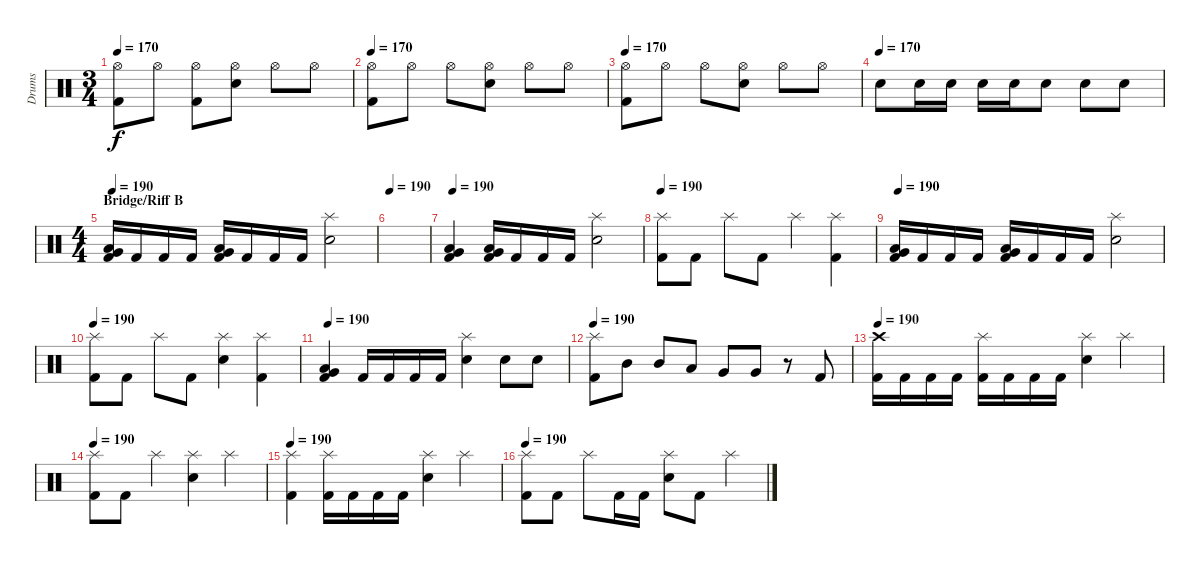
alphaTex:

\track ("Drums" "Drums") {instrument percussion}
\staff {score}
\articulation defaults
\ts (3 4)
\tempo 170
\clef neutral
\ks c
("Hi-Hat (open)" "Kick (hit) 2").8{dy f} "Hi-Hat (open)".8 ("Hi-Hat (open)" "Kick (hit) 2").8 ("Hi-Hat (open)" "Electric Snare (hit)").8 "Hi-Hat (open)".8 "Hi-Hat (open)".8 |
\tempo 170
("Hi-Hat (open)" "Kick (hit) 2").8 "Hi-Hat (open)".8 "Hi-Hat (open)".8 ("Hi-Hat (open)" "Electric Snare (hit)").8 "Hi-Hat (open)".8 "Hi-Hat (open)".8 |
\tempo 170
("Hi-Hat (open)" "Kick (hit) 2").8 "Hi-Hat (open)".8 "Hi-Hat (open)".8 ("Hi-Hat (open)" "Electric Snare (hit)").8 "Hi-Hat (open)".8 "Hi-Hat (open)".8 |
\tempo (170)
"Electric Snare (hit)".8 "Electric Snare (hit)".16 "Electric Snare (hit)".16 "Electric Snare (hit)".16 "Electric Snare (hit)".16 "Electric Snare (hit)".8 "Electric Snare (hit)".8 "Electric Snare (hit)".8 |
\ts (4 4)
\section ("" "Bridge/Riff B")
\tempo 190
("Low Tom (hit)" "Very Low Tom (hit)" "Kick (hit) 2").16 "Kick (hit) 2".16 "Kick (hit) 2".16 "Kick (hit) 2".16 ("Low Tom (hit)" "Very Low Tom (hit)" "Kick (hit) 2").16 "Kick (hit) 2".16 "Kick (hit) 2".16 "Kick (hit) 2".16 ("Splash (hit)" "Electric Snare (hit)").2 |
\tempo 190
|
\tempo 190
("Low Tom (hit)" "Very Low Tom (hit)" "Kick (hit) 2").4 ("Low Tom (hit)" "Very Low Tom (hit)" "Kick (hit) 2").16 "Kick (hit) 2".16 "Kick (hit) 2".16 "Kick (hit) 2".16 ("Splash (hit)" "Electric Snare (hit)").2 |
\tempo 190
("Splash (hit)" "Kick (hit) 2").8 "Kick (hit) 2".8 "Splash (hit)".8 "Kick (hit) 2".8 "Splash (hit)".4 ("Splash (hit)" "Kick (hit) 2").4 |
\tempo 190
("Low Tom (hit)" "Very Low Tom (hit)" "Kick (hit) 2").16 "Kick (hit) 2".16 "Kick (hit) 2".16 "Kick (hit) 2".16 ("Low Tom (hit)" "Very Low Tom (hit)" "Kick (hit) 2").16 "Kick (hit) 2".16 "Kick (hit) 2".16 "Kick (hit) 2".16 ("Splash (hit)" "Electric Snare (hit)").2 |
\tempo 190
("Splash (hit)" "Kick (hit) 2").8 "Kick (hit) 2".8 "Splash (hit)".8 "Kick (hit) 2".8 ("Splash (hit)" "Electric Snare (hit)").4 ("Splash (hit)" "Kick (hit) 2").4 |
\tempo 190
("Low Tom (hit)" "Very Low Tom (hit)" "Kick (hit) 2").4 "Kick (hit) 2".16 "Kick (hit) 2".16 "Kick (hit) 2".16 "Kick (hit) 2".16 ("Splash (hit)" "Electric Snare (hit)").4 "Electric Snare (hit)".8 "Electric Snare (hit)".8 |
\tempo 190
("Splash (hit)" "Kick (hit) 2").8 "Mid Tom (hit)".8 "Mid Tom (hit)".8 "Low Tom (hit)".8 "Very Low Tom (hit)".8 "Very Low Tom (hit)".8 r.8 "Kick (hit) 2".8 |
\section ("" "")
\tempo 190
("Crash high (hit)" "Kick (hit) 2").16 "Kick (hit) 2".16 "Kick (hit) 2".16 "Kick (hit) 2".16 ("Splash (hit)" "Kick (hit) 2").16 "Kick (hit) 2".16 "Kick (hit) 2".16 "Kick (hit) 2".16 ("Splash (hit)" "Electric Snare (hit)").4 "Splash (hit)".4 |
\tempo 190
("Splash (hit)" "Kick (hit) 2").8 "Kick (hit) 2".8 "Splash (hit)".4 ("Splash (hit)" "Electric Snare (hit)").4 "Splash (hit)".4 |
\tempo 190
("Splash (hit)" "Kick (hit) 2").4 ("Splash (hit)" "Kick (hit) 2").16 "Kick (hit) 2".16 "Kick (hit) 2".16 "Kick (hit) 2".16 ("Splash (hit)" "Electric Snare (hit)").4 "Splash (hit)".4 |
\tempo 190
("Splash (hit)" "Kick (hit) 2").8 "Kick (hit) 2".8 "Splash (hit)".8 "Kick (hit) 2".16 "Kick (hit) 2".16 ("Splash (hit)" "Electric Snare (hit)").8 "Kick (hit) 2".8 "Splash (hit)".4
